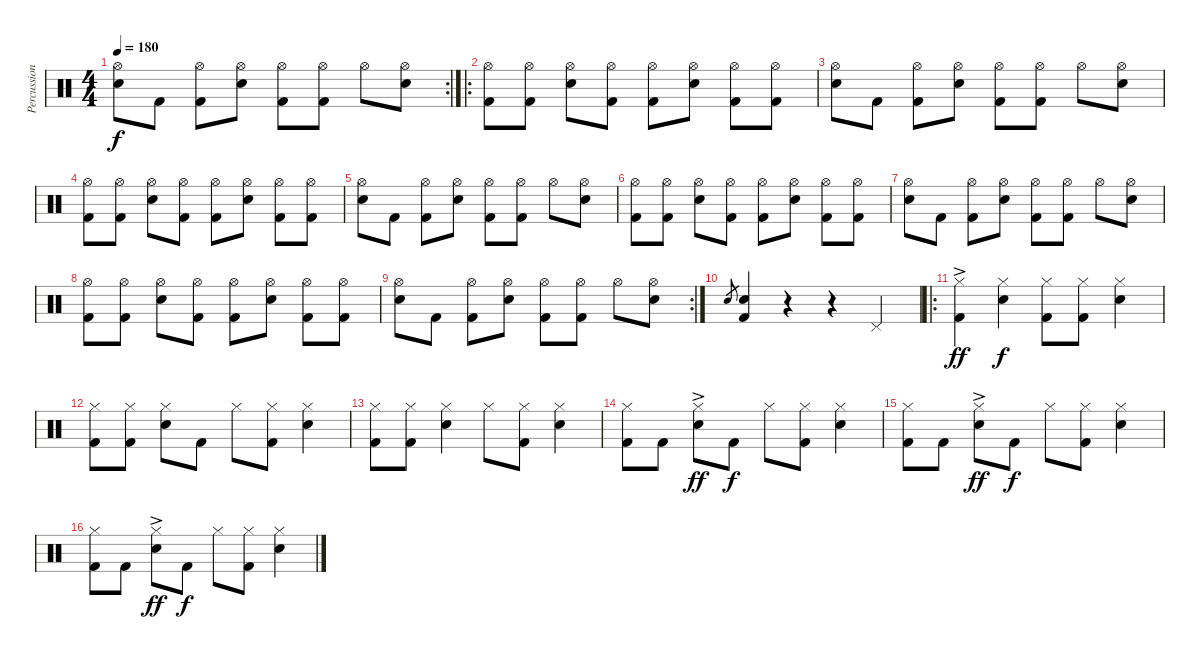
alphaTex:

\track ("Percussion" "Percussion") {instrument percussion}
\staff {score}
\articulation defaults
\rc 2
\ts (4 4)
\tempo 180
\clef neutral
\ks c
("Hi-Hat (open)" "Snare (hit) 2").8{dy f} "Kick (hit) 2".8 ("Hi-Hat (open)" "Kick (hit) 2").8 ("Hi-Hat (open)" "Snare (hit) 2").8 ("Hi-Hat (open)" "Kick (hit) 2").8 ("Hi-Hat (open)" "Kick (hit) 2").8 "Hi-Hat (open)".8 ("Hi-Hat (open)" "Snare (hit) 2").8 |
\ro
("Hi-Hat (open)" "Kick (hit) 2").8 ("Hi-Hat (open)" "Kick (hit) 2").8 ("Hi-Hat (open)" "Snare (hit) 2").8 ("Hi-Hat (open)" "Kick (hit) 2").8 ("Hi-Hat (open)" "Kick (hit) 2").8 ("Hi-Hat (open)" "Snare (hit) 2").8 ("Hi-Hat (open)" "Kick (hit) 2").8 ("Hi-Hat (open)" "Kick (hit) 2").8 |
("Hi-Hat (open)" "Snare (hit) 2").8 "Kick (hit) 2".8 ("Hi-Hat (open)" "Kick (hit) 2").8 ("Hi-Hat (open)" "Snare (hit) 2").8 ("Hi-Hat (open)" "Kick (hit) 2").8 ("Hi-Hat (open)" "Kick (hit) 2").8 "Hi-Hat (open)".8 ("Hi-Hat (open)" "Snare (hit) 2").8 |
("Hi-Hat (open)" "Kick (hit) 2").8 ("Hi-Hat (open)" "Kick (hit) 2").8 ("Hi-Hat (open)" "Snare (hit) 2").8 ("Hi-Hat (open)" "Kick (hit) 2").8 ("Hi-Hat (open)" "Kick (hit) 2").8 ("Hi-Hat (open)" "Snare (hit) 2").8 ("Hi-Hat (open)" "Kick (hit) 2").8 ("Hi-Hat (open)" "Kick (hit) 2").8 |
("Hi-Hat (open)" "Snare (hit) 2").8 "Kick (hit) 2".8 ("Hi-Hat (open)" "Kick (hit) 2").8 ("Hi-Hat (open)" "Snare (hit) 2").8 ("Hi-Hat (open)" "Kick (hit) 2").8 ("Hi-Hat (open)" "Kick (hit) 2").8 "Hi-Hat (open)".8 ("Hi-Hat (open)" "Snare (hit) 2").8 |
("Hi-Hat (open)" "Kick (hit) 2").8 ("Hi-Hat (open)" "Kick (hit) 2").8 ("Hi-Hat (open)" "Snare (hit) 2").8 ("Hi-Hat (open)" "Kick (hit) 2").8 ("Hi-Hat (open)" "Kick (hit) 2").8 ("Hi-Hat (open)" "Snare (hit) 2").8 ("Hi-Hat (open)" "Kick (hit) 2").8 ("Hi-Hat (open)" "Kick (hit) 2").8 |
("Hi-Hat (open)" "Snare (hit) 2").8 "Kick (hit) 2".8 ("Hi-Hat (open)" "Kick (hit) 2").8 ("Hi-Hat (open)" "Snare (hit) 2").8 ("Hi-Hat (open)" "Kick (hit) 2").8 ("Hi-Hat (open)" "Kick (hit) 2").8 "Hi-Hat (open)".8 ("Hi-Hat (open)" "Snare (hit) 2").8 |
("Hi-Hat (open)" "Kick (hit) 2").8 ("Hi-Hat (open)" "Kick (hit) 2").8 ("Hi-Hat (open)" "Snare (hit) 2").8 ("Hi-Hat (open)" "Kick (hit) 2").8 ("Hi-Hat (open)" "Kick (hit) 2").8 ("Hi-Hat (open)" "Snare (hit) 2").8 ("Hi-Hat (open)" "Kick (hit) 2").8 ("Hi-Hat (open)" "Kick (hit) 2").8 |
\rc 2
("Hi-Hat (open)" "Snare (hit) 2").8 "Kick (hit) 2".8 ("Hi-Hat (open)" "Kick (hit) 2").8 ("Hi-Hat (open)" "Snare (hit) 2").8 ("Hi-Hat (open)" "Kick (hit) 2").8 ("Hi-Hat (open)" "Kick (hit) 2").8 "Hi-Hat (open)".8 ("Hi-Hat (open)" "Snare (hit) 2").8 |
"Snare (hit) 2".8{gr} ("Snare (hit) 2" "Kick (hit) 2").4 r.4 r.4 "Pedal Hi-Hat (hit)".4 |
\ro
("Hi-Hat (closed)"{ac} "Kick (hit) 2").4{dy ff} ("Hi-Hat (closed)" "Snare (hit) 2").4{dy f} ("Hi-Hat (closed)" "Kick (hit) 2").8 ("Hi-Hat (closed)" "Kick (hit) 2").8 ("Hi-Hat (closed)" "Snare (hit) 2").4 |
("Hi-Hat (closed)" "Kick (hit) 2").8 ("Hi-Hat (closed)" "Kick (hit) 2").8 ("Hi-Hat (closed)" "Snare (hit) 2").8 "Kick (hit) 2".8 "Hi-Hat (closed)".8 ("Hi-Hat (closed)" "Kick (hit) 2").8 ("Hi-Hat (closed)" "Snare (hit) 2").4 |
("Hi-Hat (closed)" "Kick (hit) 2").8 ("Hi-Hat (closed)" "Kick (hit) 2").8 ("Hi-Hat (closed)" "Snare (hit) 2").4 "Hi-Hat (closed)".8 ("Hi-Hat (closed)" "Kick (hit) 2").8 ("Hi-Hat (closed)" "Snare (hit) 2").4 |
("Hi-Hat (closed)" "Kick (hit) 2").8 "Kick (hit) 2".8 ("Hi-Hat (closed)"{ac} "Snare (hit) 2").8{dy ff} "Kick (hit) 2".8{dy f} "Hi-Hat (closed)".8 ("Hi-Hat (closed)" "Kick (hit) 2").8 ("Hi-Hat (closed)" "Snare (hit) 2").4 |
("Hi-Hat (closed)" "Kick (hit) 2").8 "Kick (hit) 2".8 ("Hi-Hat (closed)"{ac} "Snare (hit) 2").8{dy ff} "Kick (hit) 2".8{dy f} "Hi-Hat (closed)".8 ("Hi-Hat (closed)" "Kick (hit) 2").8 ("Hi-Hat (closed)" "Snare (hit) 2").4 |
("Hi-Hat (closed)" "Kick (hit) 2").8 "Kick (hit) 2".8 ("Hi-Hat (closed)"{ac} "Snare (hit) 2").8{dy ff} "Kick (hit) 2".8{dy f} "Hi-Hat (closed)".8 ("Hi-Hat (closed)" "Kick (hit) 2").8 ("Hi-Hat (closed)" "Snare (hit) 2").4
